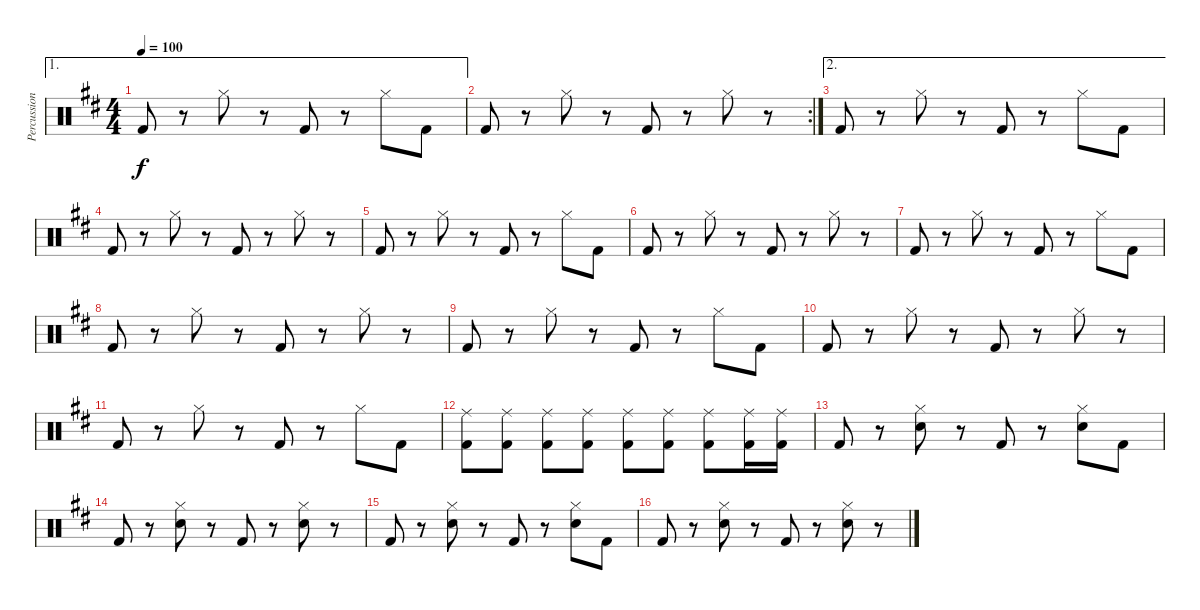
\track ("Percussion" "Percussion") {instrument percussion}
\staff {score}
\articulation defaults
\ae 1
\ts (4 4)
\tempo 100
\clef neutral
\ks d "Kick (hit) 2".8{dy f}
r.8 "Hi-Hat (closed)".8 r.8 "Kick (hit) 2".8 r.8 "Hi-Hat (closed)".8 "Kick (hit) 2".8 |
\rc 2 "Kick (hit) 2".8
r.8 "Hi-Hat (closed)".8 r.8 "Kick (hit) 2".8 r.8 "Hi-Hat (closed)".8 r.8 |
\ae 2 "Kick (hit) 2".8
r.8 "Hi-Hat (closed)".8 r.8 "Kick (hit) 2".8 r.8 "Hi-Hat (closed)".8 "Kick (hit) 2".8 |
"Kick (hit) 2".8 r.8 "Hi-Hat (closed)".8 r.8 "Kick (hit) 2".8 r.8 "Hi-Hat (closed)".8 r.8 |
"Kick (hit) 2".8 r.8 "Hi-Hat (closed)".8 r.8 "Kick (hit) 2".8 r.8 "Hi-Hat (closed)".8 "Kick (hit) 2".8 |
"Kick (hit) 2".8 r.8 "Hi-Hat (closed)".8 r.8 "Kick (hit) 2".8 r.8 "Hi-Hat (closed)".8 r.8 |
"Kick (hit) 2".8 r.8 "Hi-Hat (closed)".8 r.8 "Kick (hit) 2".8 r.8 "Hi-Hat (closed)".8 "Kick (hit) 2".8 |
"Kick (hit) 2".8 r.8 "Hi-Hat (closed)".8 r.8 "Kick (hit) 2".8 r.8 "Hi-Hat (closed)".8 r.8 |
"Kick (hit) 2".8 r.8 "Hi-Hat (closed)".8 r.8 "Kick (hit) 2".8 r.8 "Hi-Hat (closed)".8 "Kick (hit) 2".8 |
"Kick (hit) 2".8 r.8 "Hi-Hat (closed)".8 r.8 "Kick (hit) 2".8 r.8 "Hi-Hat (closed)".8 r.8 |
"Kick (hit) 2".8 r.8 "Hi-Hat (closed)".8 r.8 "Kick (hit) 2".8 r.8 "Hi-Hat (closed)".8 "Kick (hit) 2".8 |
("Ride (middle)" "Kick (hit) 2").8 ("Ride (middle)" "Kick (hit) 2").8 ("Ride (middle)" "Kick (hit) 2").8 ("Ride (middle)" "Kick (hit) 2").8 ("Ride (middle)" "Kick (hit) 2").8 ("Ride (middle)" "Kick (hit) 2").8 ("Ride (middle)" "Kick (hit) 2").8 ("Ride (middle)" "Kick (hit) 2").16 ("Ride (middle)" "Kick (hit) 2").16 |
"Kick (hit) 2".8 r.8 ("Hi-Hat (closed)" "Snare (hit) 2").8 r.8 "Kick (hit) 2".8 r.8 ("Hi-Hat (closed)" "Snare (hit) 2").8 "Kick (hit) 2".8 |
"Kick (hit) 2".8 r.8 ("Hi-Hat (closed)" "Snare (hit) 2").8 r.8 "Kick (hit) 2".8 r.8 ("Hi-Hat (closed)" "Snare (hit) 2").8 r.8 |
"Kick (hit) 2".8 r.8 ("Hi-Hat (closed)" "Snare (hit) 2").8 r.8 "Kick (hit) 2".8 r.8 ("Hi-Hat (closed)" "Snare (hit) 2").8 "Kick (hit) 2".8 |
"Kick (hit) 2".8 r.8 ("Hi-Hat (closed)" "Snare (hit) 2").8 r.8 "Kick (hit) 2".8 r.8 ("Hi-Hat (closed)" "Snare (hit) 2").8 r.8
